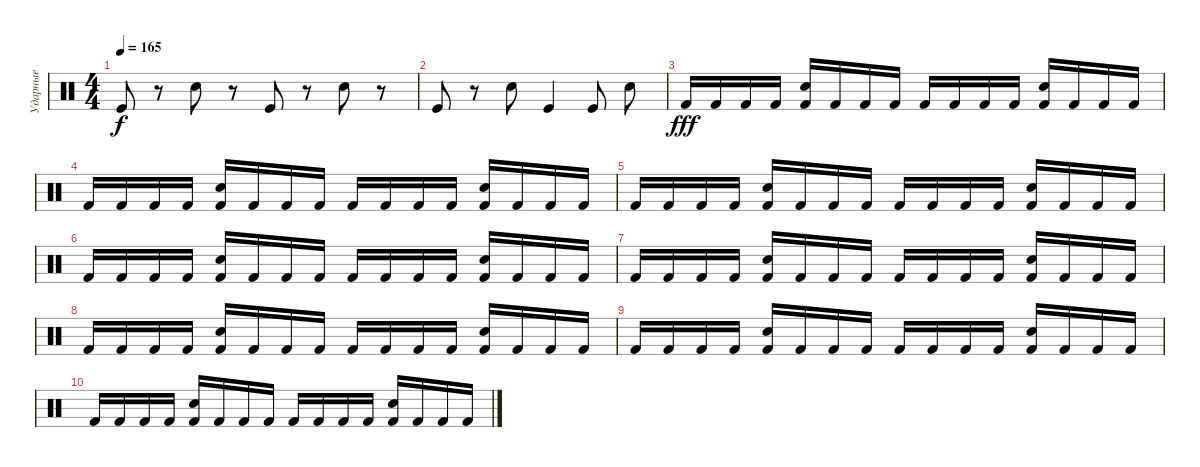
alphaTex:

\track ("Ударные" "Ударные") {instrument percussion}
\staff {score}
\articulation defaults
\ts (4 4)
\tempo 165
\clef neutral
\ks c "Kick (hit)".8{dy f}
r.8 "Snare (hit) 2".8 r.8 "Kick (hit)".8 r.8 "Snare (hit) 2".8 r.8 |
"Kick (hit)".8 r.8 "Snare (hit) 2".8 "Kick (hit)".4 "Kick (hit)".8 "Snare (hit) 2".8 |
"Kick (hit) 2".16{dy fff} "Kick (hit) 2".16 "Kick (hit) 2".16 "Kick (hit) 2".16 ("Electric Snare (hit)" "Kick (hit) 2").16 "Kick (hit) 2".16 "Kick (hit) 2".16 "Kick (hit) 2".16 "Kick (hit) 2".16 "Kick (hit) 2".16 "Kick (hit) 2".16 "Kick (hit) 2".16 ("Electric Snare (hit)" "Kick (hit) 2").16 "Kick (hit) 2".16 "Kick (hit) 2".16 "Kick (hit) 2".16 |
"Kick (hit) 2".16 "Kick (hit) 2".16 "Kick (hit) 2".16 "Kick (hit) 2".16 ("Electric Snare (hit)" "Kick (hit) 2").16 "Kick (hit) 2".16 "Kick (hit) 2".16 "Kick (hit) 2".16 "Kick (hit) 2".16 "Kick (hit) 2".16 "Kick (hit) 2".16 "Kick (hit) 2".16 ("Electric Snare (hit)" "Kick (hit) 2").16 "Kick (hit) 2".16 "Kick (hit) 2".16 "Kick (hit) 2".16 |
"Kick (hit) 2".16 "Kick (hit) 2".16 "Kick (hit) 2".16 "Kick (hit) 2".16 ("Electric Snare (hit)" "Kick (hit) 2").16 "Kick (hit) 2".16 "Kick (hit) 2".16 "Kick (hit) 2".16 "Kick (hit) 2".16 "Kick (hit) 2".16 "Kick (hit) 2".16 "Kick (hit) 2".16 ("Electric Snare (hit)" "Kick (hit) 2").16 "Kick (hit) 2".16 "Kick (hit) 2".16 "Kick (hit) 2".16 |
"Kick (hit) 2".16 "Kick (hit) 2".16 "Kick (hit) 2".16 "Kick (hit) 2".16 ("Electric Snare (hit)" "Kick (hit) 2").16 "Kick (hit) 2".16 "Kick (hit) 2".16 "Kick (hit) 2".16 "Kick (hit) 2".16 "Kick (hit) 2".16 "Kick (hit) 2".16 "Kick (hit) 2".16 ("Electric Snare (hit)" "Kick (hit) 2").16 "Kick (hit) 2".16 "Kick (hit) 2".16 "Kick (hit) 2".16 |
"Kick (hit) 2".16 "Kick (hit) 2".16 "Kick (hit) 2".16 "Kick (hit) 2".16 ("Electric Snare (hit)" "Kick (hit) 2").16 "Kick (hit) 2".16 "Kick (hit) 2".16 "Kick (hit) 2".16 "Kick (hit) 2".16 "Kick (hit) 2".16 "Kick (hit) 2".16 "Kick (hit) 2".16 ("Electric Snare (hit)" "Kick (hit) 2").16 "Kick (hit) 2".16 "Kick (hit) 2".16 "Kick (hit) 2".16 |
"Kick (hit) 2".16 "Kick (hit) 2".16 "Kick (hit) 2".16 "Kick (hit) 2".16 ("Electric Snare (hit)" "Kick (hit) 2").16 "Kick (hit) 2".16 "Kick (hit) 2".16 "Kick (hit) 2".16 "Kick (hit) 2".16 "Kick (hit) 2".16 "Kick (hit) 2".16 "Kick (hit) 2".16 ("Electric Snare (hit)" "Kick (hit) 2").16 "Kick (hit) 2".16 "Kick (hit) 2".16 "Kick (hit) 2".16 |
"Kick (hit) 2".16 "Kick (hit) 2".16 "Kick (hit) 2".16 "Kick (hit) 2".16 ("Electric Snare (hit)" "Kick (hit) 2").16 "Kick (hit) 2".16 "Kick (hit) 2".16 "Kick (hit) 2".16 "Kick (hit) 2".16 "Kick (hit) 2".16 "Kick (hit) 2".16 "Kick (hit) 2".16 ("Electric Snare (hit)" "Kick (hit) 2").16 "Kick (hit) 2".16 "Kick (hit) 2".16 "Kick (hit) 2".16 |
"Kick (hit) 2".16 "Kick (hit) 2".16 "Kick (hit) 2".16 "Kick (hit) 2".16 ("Electric Snare (hit)" "Kick (hit) 2").16 "Kick (hit) 2".16 "Kick (hit) 2".16 "Kick (hit) 2".16 "Kick (hit) 2".16 "Kick (hit) 2".16 "Kick (hit) 2".16 "Kick (hit) 2".16 ("Electric Snare (hit)" "Kick (hit) 2").16 "Kick (hit) 2".16 "Kick (hit) 2".16 "Kick (hit) 2".16
